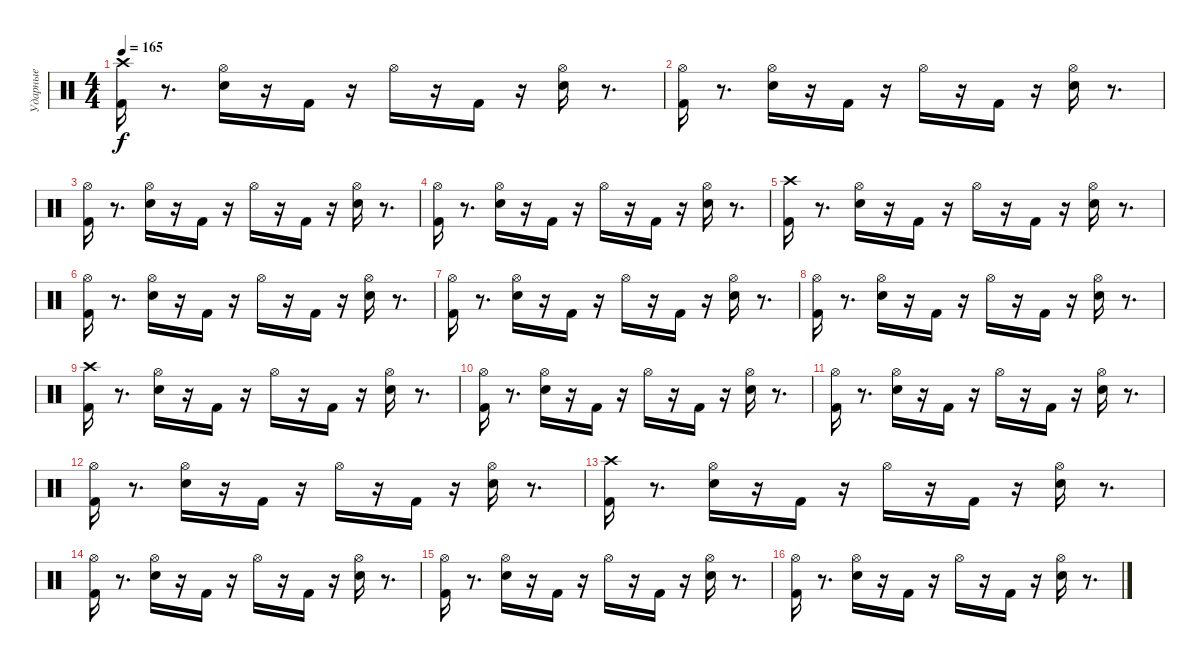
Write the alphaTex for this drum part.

\track ("Ударные" "Ударные") {instrument percussion}
\staff {score}
\articulation defaults
\ts (4 4)
\tempo 165
\clef neutral
\ks c
("Kick (hit) 2" "Crash high (hit)").16{dy f} r.8{d} ("Electric Snare (hit)" "Hi-Hat (open)").16 r.16 "Kick (hit) 2".16 r.16 "Hi-Hat (open)".16 r.16 "Kick (hit) 2".16 r.16 ("Electric Snare (hit)" "Hi-Hat (open)").16 r.8{d} |
("Kick (hit) 2" "Hi-Hat (open)").16 r.8{d} ("Electric Snare (hit)" "Hi-Hat (open)").16 r.16 "Kick (hit) 2".16 r.16 "Hi-Hat (open)".16 r.16 "Kick (hit) 2".16 r.16 ("Electric Snare (hit)" "Hi-Hat (open)").16 r.8{d} |
("Kick (hit) 2" "Hi-Hat (open)").16 r.8{d} ("Hi-Hat (open)" "Electric Snare (hit)").16 r.16 "Kick (hit) 2".16 r.16 "Hi-Hat (open)".16 r.16 "Kick (hit) 2".16 r.16 ("Electric Snare (hit)" "Hi-Hat (open)").16 r.8{d} |
("Kick (hit) 2" "Hi-Hat (open)").16 r.8{d} ("Hi-Hat (open)" "Electric Snare (hit)").16 r.16 "Kick (hit) 2".16 r.16 "Hi-Hat (open)".16 r.16 "Kick (hit) 2".16 r.16 ("Electric Snare (hit)" "Hi-Hat (open)").16 r.8{d} |
("Crash high (hit)" "Kick (hit) 2").16 r.8{d} ("Electric Snare (hit)" "Hi-Hat (open)").16 r.16 "Kick (hit) 2".16 r.16 "Hi-Hat (open)".16 r.16 "Kick (hit) 2".16 r.16 ("Electric Snare (hit)" "Hi-Hat (open)").16 r.8{d} |
("Hi-Hat (open)" "Kick (hit) 2").16 r.8{d} ("Electric Snare (hit)" "Hi-Hat (open)").16 r.16 "Kick (hit) 2".16 r.16 "Hi-Hat (open)".16 r.16 "Kick (hit) 2".16 r.16 ("Electric Snare (hit)" "Hi-Hat (open)").16 r.8{d} |
("Hi-Hat (open)" "Kick (hit) 2").16 r.8{d} ("Hi-Hat (open)" "Electric Snare (hit)").16 r.16 "Kick (hit) 2".16 r.16 "Hi-Hat (open)".16 r.16 "Kick (hit) 2".16 r.16 ("Electric Snare (hit)" "Hi-Hat (open)").16 r.8{d} |
("Hi-Hat (open)" "Kick (hit) 2").16 r.8{d} ("Hi-Hat (open)" "Electric Snare (hit)").16 r.16 "Kick (hit) 2".16 r.16 "Hi-Hat (open)".16 r.16 "Kick (hit) 2".16 r.16 ("Electric Snare (hit)" "Hi-Hat (open)").16 r.8{d} |
("Crash high (hit)" "Kick (hit) 2").16 r.8{d} ("Electric Snare (hit)" "Hi-Hat (open)").16 r.16 "Kick (hit) 2".16 r.16 "Hi-Hat (open)".16 r.16 "Kick (hit) 2".16 r.16 ("Electric Snare (hit)" "Hi-Hat (open)").16 r.8{d} |
("Hi-Hat (open)" "Kick (hit) 2").16 r.8{d} ("Electric Snare (hit)" "Hi-Hat (open)").16 r.16 "Kick (hit) 2".16 r.16 "Hi-Hat (open)".16 r.16 "Kick (hit) 2".16 r.16 ("Electric Snare (hit)" "Hi-Hat (open)").16 r.8{d} |
("Hi-Hat (open)" "Kick (hit) 2").16 r.8{d} ("Hi-Hat (open)" "Electric Snare (hit)").16 r.16 "Kick (hit) 2".16 r.16 "Hi-Hat (open)".16 r.16 "Kick (hit) 2".16 r.16 ("Electric Snare (hit)" "Hi-Hat (open)").16 r.8{d} |
("Hi-Hat (open)" "Kick (hit) 2").16 r.8{d} ("Hi-Hat (open)" "Electric Snare (hit)").16 r.16 "Kick (hit) 2".16 r.16 "Hi-Hat (open)".16 r.16 "Kick (hit) 2".16 r.16 ("Electric Snare (hit)" "Hi-Hat (open)").16 r.8{d} |
("Crash high (hit)" "Kick (hit) 2").16 r.8{d} ("Electric Snare (hit)" "Hi-Hat (open)").16 r.16 "Kick (hit) 2".16 r.16 "Hi-Hat (open)".16 r.16 "Kick (hit) 2".16 r.16 ("Electric Snare (hit)" "Hi-Hat (open)").16 r.8{d} |
("Hi-Hat (open)" "Kick (hit) 2").16 r.8{d} ("Electric Snare (hit)" "Hi-Hat (open)").16 r.16 "Kick (hit) 2".16 r.16 "Hi-Hat (open)".16 r.16 "Kick (hit) 2".16 r.16 ("Electric Snare (hit)" "Hi-Hat (open)").16 r.8{d} |
("Hi-Hat (open)" "Kick (hit) 2").16 r.8{d} ("Hi-Hat (open)" "Electric Snare (hit)").16 r.16 "Kick (hit) 2".16 r.16 "Hi-Hat (open)".16 r.16 "Kick (hit) 2".16 r.16 ("Electric Snare (hit)" "Hi-Hat (open)").16 r.8{d} |
("Hi-Hat (open)" "Kick (hit) 2").16 r.8{d} ("Hi-Hat (open)" "Electric Snare (hit)").16 r.16 "Kick (hit) 2".16 r.16 "Hi-Hat (open)".16 r.16 "Kick (hit) 2".16 r.16 ("Electric Snare (hit)" "Hi-Hat (open)").16 r.8{d}
